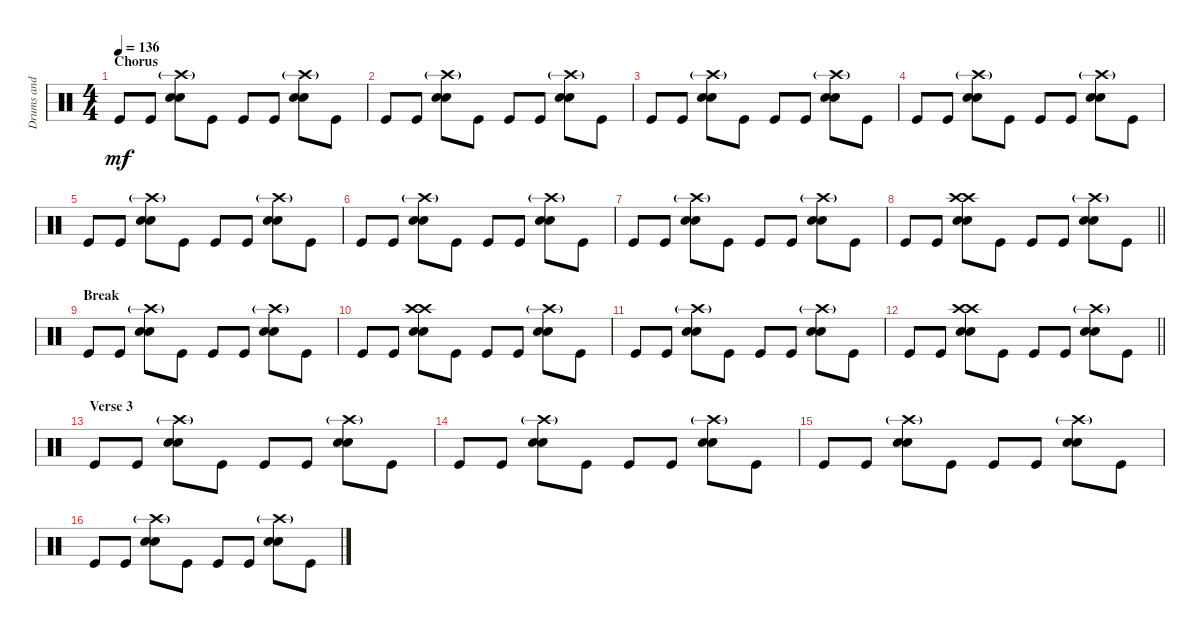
\track ("Drums and Percussions" "Drums and ") {instrument percussion}
\staff {score}
\articulation defaults
\ts (4 4)
\section ("" "Chorus")
\tempo 136
\clef neutral
\ks c "Kick (hit)".8{dy mf} "Kick (hit)".8
("Crash high (hit)"{g} "Electric Snare (hit)" "Electric Snare (hit)").8 "Kick (hit)".8 "Kick (hit)".8 "Kick (hit)".8 ("Crash high (hit)"{g} "Electric Snare (hit)" "Electric Snare (hit)").8 "Kick (hit)".8 |
"Kick (hit)".8 "Kick (hit)".8 ("Crash high (hit)"{g} "Electric Snare (hit)" "Electric Snare (hit)").8 "Kick (hit)".8 "Kick (hit)".8 "Kick (hit)".8 ("Crash high (hit)"{g} "Electric Snare (hit)" "Electric Snare (hit)").8 "Kick (hit)".8 |
"Kick (hit)".8 "Kick (hit)".8 ("Crash high (hit)"{g} "Electric Snare (hit)" "Electric Snare (hit)").8 "Kick (hit)".8 "Kick (hit)".8 "Kick (hit)".8 ("Crash high (hit)"{g} "Electric Snare (hit)" "Electric Snare (hit)").8 "Kick (hit)".8 |
"Kick (hit)".8 "Kick (hit)".8 ("Crash high (hit)"{g} "Electric Snare (hit)" "Electric Snare (hit)").8 "Kick (hit)".8 "Kick (hit)".8 "Kick (hit)".8 ("Crash high (hit)"{g} "Electric Snare (hit)" "Electric Snare (hit)").8 "Kick (hit)".8 |
"Kick (hit)".8 "Kick (hit)".8 ("Crash high (hit)"{g} "Electric Snare (hit)" "Electric Snare (hit)").8 "Kick (hit)".8 "Kick (hit)".8 "Kick (hit)".8 ("Crash high (hit)"{g} "Electric Snare (hit)" "Electric Snare (hit)").8 "Kick (hit)".8 |
"Kick (hit)".8 "Kick (hit)".8 ("Crash high (hit)"{g} "Electric Snare (hit)" "Electric Snare (hit)").8 "Kick (hit)".8 "Kick (hit)".8 "Kick (hit)".8 ("Crash high (hit)"{g} "Electric Snare (hit)" "Electric Snare (hit)").8 "Kick (hit)".8 |
"Kick (hit)".8 "Kick (hit)".8 ("Crash high (hit)"{g} "Electric Snare (hit)" "Electric Snare (hit)").8 "Kick (hit)".8 "Kick (hit)".8 "Kick (hit)".8 ("Crash high (hit)"{g} "Electric Snare (hit)" "Electric Snare (hit)").8 "Kick (hit)".8 |
\barLineRight lightlight "Kick (hit)".8 "Kick (hit)".8
("Crash high (hit)" "Crash high (hit)" "Electric Snare (hit)" "Electric Snare (hit)").8 "Kick (hit)".8 "Kick (hit)".8 "Kick (hit)".8 ("Crash high (hit)"{g} "Electric Snare (hit)" "Electric Snare (hit)").8 "Kick (hit)".8 |
\section ("" "Break")
"Kick (hit)".8 "Kick (hit)".8 ("Crash high (hit)"{g} "Electric Snare (hit)" "Electric Snare (hit)").8 "Kick (hit)".8 "Kick (hit)".8 "Kick (hit)".8 ("Crash high (hit)"{g} "Electric Snare (hit)" "Electric Snare (hit)").8 "Kick (hit)".8 |
"Kick (hit)".8 "Kick (hit)".8 ("Crash high (hit)" "Crash high (hit)" "Electric Snare (hit)" "Electric Snare (hit)").8 "Kick (hit)".8 "Kick (hit)".8 "Kick (hit)".8 ("Crash high (hit)"{g} "Electric Snare (hit)" "Electric Snare (hit)").8 "Kick (hit)".8 |
"Kick (hit)".8 "Kick (hit)".8 ("Crash high (hit)"{g} "Electric Snare (hit)" "Electric Snare (hit)").8 "Kick (hit)".8 "Kick (hit)".8 "Kick (hit)".8 ("Crash high (hit)"{g} "Electric Snare (hit)" "Electric Snare (hit)").8 "Kick (hit)".8 |
\barLineRight lightlight "Kick (hit)".8 "Kick (hit)".8
("Crash high (hit)" "Crash high (hit)" "Electric Snare (hit)" "Electric Snare (hit)").8 "Kick (hit)".8 "Kick (hit)".8 "Kick (hit)".8 ("Crash high (hit)"{g} "Electric Snare (hit)" "Electric Snare (hit)").8 "Kick (hit)".8 |
\section ("" "Verse 3")
"Kick (hit)".8 "Kick (hit)".8 ("Crash high (hit)"{g} "Electric Snare (hit)" "Electric Snare (hit)").8 "Kick (hit)".8 "Kick (hit)".8 "Kick (hit)".8 ("Crash high (hit)"{g} "Electric Snare (hit)" "Electric Snare (hit)").8 "Kick (hit)".8 |
"Kick (hit)".8 "Kick (hit)".8 ("Crash high (hit)"{g} "Electric Snare (hit)" "Electric Snare (hit)").8 "Kick (hit)".8 "Kick (hit)".8 "Kick (hit)".8 ("Crash high (hit)"{g} "Electric Snare (hit)" "Electric Snare (hit)").8 "Kick (hit)".8 |
"Kick (hit)".8 "Kick (hit)".8 ("Crash high (hit)"{g} "Electric Snare (hit)" "Electric Snare (hit)").8 "Kick (hit)".8 "Kick (hit)".8 "Kick (hit)".8 ("Crash high (hit)"{g} "Electric Snare (hit)" "Electric Snare (hit)").8 "Kick (hit)".8 |
"Kick (hit)".8 "Kick (hit)".8 ("Crash high (hit)"{g} "Electric Snare (hit)" "Electric Snare (hit)").8 "Kick (hit)".8 "Kick (hit)".8 "Kick (hit)".8 ("Crash high (hit)"{g} "Electric Snare (hit)" "Electric Snare (hit)").8 "Kick (hit)".8
